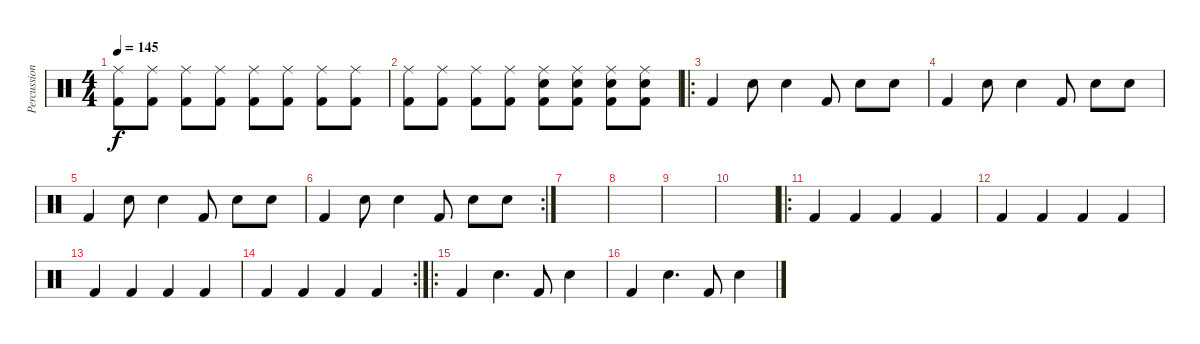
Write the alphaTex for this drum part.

\track ("Percussions" "Percussion") {instrument percussion}
\staff {score}
\articulation defaults
\ts (4 4)
\tempo 145
\clef neutral
\ks c
("Ride (middle)" "Kick (hit) 2").8{dy f} ("Ride (middle)" "Kick (hit) 2").8 ("Ride (middle)" "Kick (hit) 2").8 ("Ride (middle)" "Kick (hit) 2").8 ("Ride (middle)" "Kick (hit) 2").8 ("Ride (middle)" "Kick (hit) 2").8 ("Ride (middle)" "Kick (hit) 2").8 ("Ride (middle)" "Kick (hit) 2").8 |
("Ride (middle)" "Kick (hit) 2").8 ("Ride (middle)" "Kick (hit) 2").8 ("Ride (middle)" "Kick (hit) 2").8 ("Ride (middle)" "Kick (hit) 2").8 ("Ride (middle)" "Snare (hit) 2" "Kick (hit) 2").8 ("Ride (middle)" "Snare (hit) 2" "Kick (hit) 2").8 ("Ride (middle)" "Snare (hit) 2" "Kick (hit) 2").8 ("Ride (middle)" "Snare (hit) 2" "Kick (hit) 2").8 |
\ro "Kick (hit) 2".4 "Snare (hit) 2".8 "Snare (hit) 2".4 "Kick (hit) 2".8 "Snare (hit) 2".8 "Snare (hit) 2".8
|
"Kick (hit) 2".4 "Snare (hit) 2".8 "Snare (hit) 2".4 "Kick (hit) 2".8 "Snare (hit) 2".8 "Snare (hit) 2".8 |
"Kick (hit) 2".4 "Snare (hit) 2".8 "Snare (hit) 2".4 "Kick (hit) 2".8 "Snare (hit) 2".8 "Snare (hit) 2".8 |
\rc 2 "Kick (hit) 2".4 "Snare (hit) 2".8 "Snare (hit) 2".4 "Kick (hit) 2".8 "Snare (hit) 2".8 "Snare (hit) 2".8
|
|
|
|
|
\ro "Kick (hit) 2".4 "Kick (hit) 2".4 "Kick (hit) 2".4 "Kick (hit) 2".4
|
"Kick (hit) 2".4 "Kick (hit) 2".4 "Kick (hit) 2".4 "Kick (hit) 2".4 |
"Kick (hit) 2".4 "Kick (hit) 2".4 "Kick (hit) 2".4 "Kick (hit) 2".4 |
\rc 2 "Kick (hit) 2".4 "Kick (hit) 2".4 "Kick (hit) 2".4 "Kick (hit) 2".4
|
\ro "Kick (hit) 2".4 "Snare (hit) 2".4{d} "Kick (hit) 2".8 "Snare (hit) 2".4
|
"Kick (hit) 2".4 "Snare (hit) 2".4{d} "Kick (hit) 2".8 "Snare (hit) 2".4
